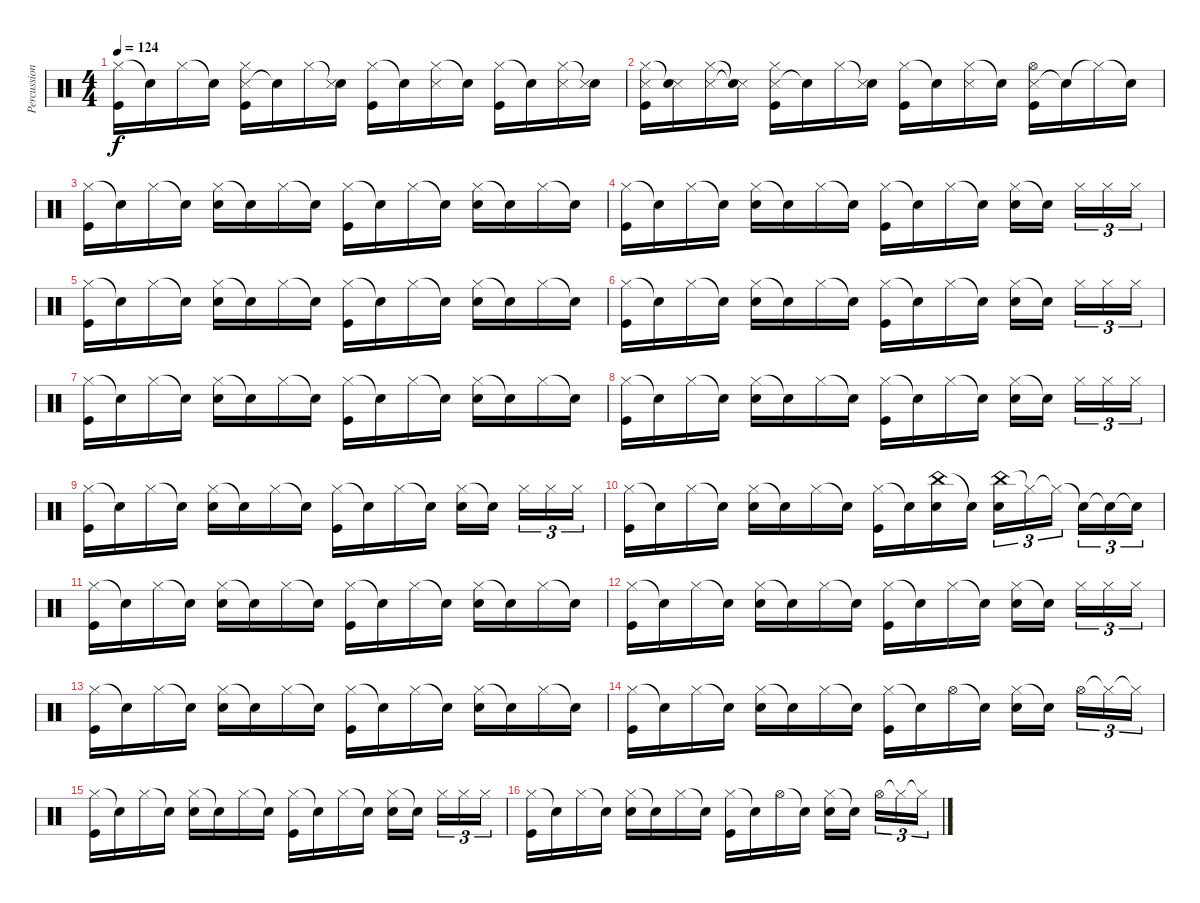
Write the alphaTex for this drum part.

\track ("Percussion" "Percussion") {instrument percussion}
\staff {score}
\articulation defaults
\ts (4 4)
\tempo 124
\clef neutral
\ks c
("Hi-Hat (closed)" "Kick (hit)").16{dy f} "Snare (hit)"{t}.16 "Hi-Hat (closed)".16 "Snare (hit)"{t}.16 ("Snare (side stick) 3" "Hi-Hat (closed)" "Kick (hit)").16 "Snare (hit)"{t}.16 "Hi-Hat (closed)".16 ("Snare (hit)"{t} "Snare (side stick) 3").16 ("Hi-Hat (closed)" "Kick (hit)").16 "Snare (hit)"{t}.16 ("Hi-Hat (closed)" "Snare (side stick) 3").16 "Snare (hit)"{t}.16 ("Hi-Hat (closed)" "Kick (hit)").16 "Snare (hit)"{t}.16 ("Hi-Hat (closed)" "Snare (side stick) 3").16 ("Snare (hit)"{t} "Snare (side stick) 3").16 |
("Snare (side stick) 3" "Hi-Hat (closed)" "Kick (hit)").16 ("Snare (side stick) 3" "Snare (hit)"{t}).16 ("Snare (side stick) 3" "Hi-Hat (closed)").16 ("Snare (side stick) 3"{t} "Snare (hit)"{t}).16 ("Snare (side stick) 3" "Hi-Hat (closed)" "Kick (hit)").16 "Snare (hit)"{t}.16 "Hi-Hat (closed)".16 ("Snare (hit)"{t} "Snare (side stick) 3").16 ("Hi-Hat (closed)" "Kick (hit)").16 "Snare (hit)"{t}.16 ("Hi-Hat (closed)" "Snare (side stick) 3").16 "Snare (hit)"{t}.16 ("Snare (side stick) 3" "Hi-Hat (open)" "Kick (hit)").16 "Snare (hit)"{t}.16 "Hi-Hat (closed)"{t}.16 "Snare (hit)"{t}.16 |
("Hi-Hat (closed)" "Kick (hit)").16 "Snare (hit)"{t}.16 "Hi-Hat (closed)".16 "Snare (hit)"{t}.16 ("Hi-Hat (closed)" "Electric Snare (hit)").16 "Snare (hit)"{t}.16 "Hi-Hat (closed)".16 "Snare (hit)"{t}.16 ("Hi-Hat (closed)" "Kick (hit)").16 "Snare (hit)"{t}.16 "Hi-Hat (closed)".16 "Snare (hit)"{t}.16 ("Hi-Hat (closed)" "Electric Snare (hit)").16 "Snare (hit)"{t}.16 "Hi-Hat (closed)".16 "Snare (hit)"{t}.16 |
("Hi-Hat (closed)" "Kick (hit)").16 "Snare (hit)"{t}.16 "Hi-Hat (closed)".16 "Snare (hit)"{t}.16 ("Hi-Hat (closed)" "Electric Snare (hit)").16 "Snare (hit)"{t}.16 "Hi-Hat (closed)".16 "Snare (hit)"{t}.16 ("Hi-Hat (closed)" "Kick (hit)").16 "Snare (hit)"{t}.16 "Hi-Hat (closed)".16 "Snare (hit)"{t}.16 ("Hi-Hat (closed)" "Electric Snare (hit)").16 "Snare (hit)"{t}.16 "Hi-Hat (closed)".16{tu (3 2)} "Hi-Hat (closed)".16{tu (3 2)} "Hi-Hat (closed)".16{tu (3 2)} |
("Hi-Hat (closed)" "Kick (hit)").16 "Snare (hit)"{t}.16 "Hi-Hat (closed)".16 "Snare (hit)"{t}.16 ("Hi-Hat (closed)" "Electric Snare (hit)").16 "Snare (hit)"{t}.16 "Hi-Hat (closed)".16 "Snare (hit)"{t}.16 ("Hi-Hat (closed)" "Kick (hit)").16 "Snare (hit)"{t}.16 "Hi-Hat (closed)".16 "Snare (hit)"{t}.16 ("Hi-Hat (closed)" "Electric Snare (hit)").16 "Snare (hit)"{t}.16 "Hi-Hat (closed)".16 "Snare (hit)"{t}.16 |
("Hi-Hat (closed)" "Kick (hit)").16 "Snare (hit)"{t}.16 "Hi-Hat (closed)".16 "Snare (hit)"{t}.16 ("Hi-Hat (closed)" "Electric Snare (hit)").16 "Snare (hit)"{t}.16 "Hi-Hat (closed)".16 "Snare (hit)"{t}.16 ("Hi-Hat (closed)" "Kick (hit)").16 "Snare (hit)"{t}.16 "Hi-Hat (closed)".16 "Snare (hit)"{t}.16 ("Hi-Hat (closed)" "Electric Snare (hit)").16 "Snare (hit)"{t}.16 "Hi-Hat (closed)".16{tu (3 2)} "Hi-Hat (closed)".16{tu (3 2)} "Hi-Hat (closed)".16{tu (3 2)} |
("Hi-Hat (closed)" "Kick (hit)").16 "Snare (hit)"{t}.16 "Hi-Hat (closed)".16 "Snare (hit)"{t}.16 ("Hi-Hat (closed)" "Electric Snare (hit)").16 "Snare (hit)"{t}.16 "Hi-Hat (closed)".16 "Snare (hit)"{t}.16 ("Hi-Hat (closed)" "Kick (hit)").16 "Snare (hit)"{t}.16 "Hi-Hat (closed)".16 "Snare (hit)"{t}.16 ("Hi-Hat (closed)" "Electric Snare (hit)").16 "Snare (hit)"{t}.16 "Hi-Hat (closed)".16 "Snare (hit)"{t}.16 |
("Hi-Hat (closed)" "Kick (hit)").16 "Snare (hit)"{t}.16 "Hi-Hat (closed)".16 "Snare (hit)"{t}.16 ("Hi-Hat (closed)" "Electric Snare (hit)").16 "Snare (hit)"{t}.16 "Hi-Hat (closed)".16 "Snare (hit)"{t}.16 ("Hi-Hat (closed)" "Kick (hit)").16 "Snare (hit)"{t}.16 "Hi-Hat (closed)".16 "Snare (hit)"{t}.16 ("Hi-Hat (closed)" "Electric Snare (hit)").16 "Snare (hit)"{t}.16 "Hi-Hat (closed)".16{tu (3 2)} "Hi-Hat (closed)".16{tu (3 2)} "Hi-Hat (closed)".16{tu (3 2)} |
("Hi-Hat (closed)" "Kick (hit)").16 "Snare (hit)"{t}.16 "Hi-Hat (closed)".16 "Snare (hit)"{t}.16 ("Hi-Hat (closed)" "Electric Snare (hit)").16 "Snare (hit)"{t}.16 "Hi-Hat (closed)".16 "Snare (hit)"{t}.16 ("Hi-Hat (closed)" "Kick (hit)").16 "Snare (hit)"{t}.16 "Hi-Hat (closed)".16 "Snare (hit)"{t}.16 ("Hi-Hat (closed)" "Electric Snare (hit)").16 "Snare (hit)"{t}.16 "Hi-Hat (closed)".16{tu (3 2)} "Hi-Hat (closed)".16{tu (3 2)} "Hi-Hat (closed)".16{tu (3 2)} |
("Hi-Hat (closed)" "Kick (hit)").16 "Snare (hit)"{t}.16 "Hi-Hat (closed)".16 "Snare (hit)"{t}.16 ("Hi-Hat (closed)" "Electric Snare (hit)").16 "Snare (hit)"{t}.16 "Hi-Hat (closed)".16 "Snare (hit)"{t}.16 ("Hi-Hat (closed)" "Kick (hit)").16 "Snare (hit)"{t}.16 ("China (hit)" "Electric Snare (hit)").16 "Snare (hit)"{t}.16 ("China (hit)" "Electric Snare (hit)").16{tu (3 2)} "Hi-Hat (closed)"{t}.16{tu (3 2)} "Hi-Hat (closed)"{t}.16{tu (3 2)} "Snare (hit)"{t}.16{tu (3 2)} "Snare (hit)"{t}.16{tu (3 2)} "Snare (hit)"{t}.16{tu (3 2)} |
("Hi-Hat (closed)" "Kick (hit)").16 "Snare (hit)"{t}.16 "Hi-Hat (closed)".16 "Snare (hit)"{t}.16 ("Hi-Hat (closed)" "Electric Snare (hit)").16 "Snare (hit)"{t}.16 "Hi-Hat (closed)".16 "Snare (hit)"{t}.16 ("Hi-Hat (closed)" "Kick (hit)").16 "Snare (hit)"{t}.16 "Hi-Hat (closed)".16 "Snare (hit)"{t}.16 ("Hi-Hat (closed)" "Electric Snare (hit)").16 "Snare (hit)"{t}.16 "Hi-Hat (closed)".16 "Snare (hit)"{t}.16 |
("Hi-Hat (closed)" "Kick (hit)").16 "Snare (hit)"{t}.16 "Hi-Hat (closed)".16 "Snare (hit)"{t}.16 ("Hi-Hat (closed)" "Electric Snare (hit)").16 "Snare (hit)"{t}.16 "Hi-Hat (closed)".16 "Snare (hit)"{t}.16 ("Hi-Hat (closed)" "Kick (hit)").16 "Snare (hit)"{t}.16 "Hi-Hat (closed)".16 "Snare (hit)"{t}.16 ("Hi-Hat (closed)" "Electric Snare (hit)").16 "Snare (hit)"{t}.16 "Hi-Hat (closed)".16{tu (3 2)} "Hi-Hat (closed)".16{tu (3 2)} "Hi-Hat (closed)".16{tu (3 2)} |
("Hi-Hat (closed)" "Kick (hit)").16 "Snare (hit)"{t}.16 "Hi-Hat (closed)".16 "Snare (hit)"{t}.16 ("Hi-Hat (closed)" "Electric Snare (hit)").16 "Snare (hit)"{t}.16 "Hi-Hat (closed)".16 "Snare (hit)"{t}.16 ("Hi-Hat (closed)" "Kick (hit)").16 "Snare (hit)"{t}.16 "Hi-Hat (closed)".16 "Snare (hit)"{t}.16 ("Hi-Hat (closed)" "Electric Snare (hit)").16 "Snare (hit)"{t}.16 "Hi-Hat (closed)".16 "Snare (hit)"{t}.16 |
("Hi-Hat (closed)" "Kick (hit)").16 "Snare (hit)"{t}.16 "Hi-Hat (closed)".16 "Snare (hit)"{t}.16 ("Hi-Hat (closed)" "Electric Snare (hit)").16 "Snare (hit)"{t}.16 "Hi-Hat (closed)".16 "Snare (hit)"{t}.16 ("Hi-Hat (closed)" "Kick (hit)").16 "Snare (hit)"{t}.16 "Hi-Hat (open)".16 "Snare (hit)"{t}.16 ("Hi-Hat (closed)" "Electric Snare (hit)").16 "Snare (hit)"{t}.16 "Hi-Hat (open)".16{tu (3 2)} "Hi-Hat (closed)"{t}.16{tu (3 2)} "Hi-Hat (closed)"{t}.16{tu (3 2)} |
("Hi-Hat (closed)" "Kick (hit)").16 "Snare (hit)"{t}.16 "Hi-Hat (closed)".16 "Snare (hit)"{t}.16 ("Hi-Hat (closed)" "Electric Snare (hit)").16 "Snare (hit)"{t}.16 "Hi-Hat (closed)".16 "Snare (hit)"{t}.16 ("Hi-Hat (closed)" "Kick (hit)").16 "Snare (hit)"{t}.16 "Hi-Hat (closed)".16 "Snare (hit)"{t}.16 ("Hi-Hat (closed)" "Electric Snare (hit)").16 "Snare (hit)"{t}.16 "Hi-Hat (closed)".16{tu (3 2)} "Hi-Hat (closed)".16{tu (3 2)} "Hi-Hat (closed)".16{tu (3 2)} |
("Hi-Hat (closed)" "Kick (hit)").16 "Snare (hit)"{t}.16 "Hi-Hat (closed)".16 "Snare (hit)"{t}.16 ("Hi-Hat (closed)" "Electric Snare (hit)").16 "Snare (hit)"{t}.16 "Hi-Hat (closed)".16 "Snare (hit)"{t}.16 ("Hi-Hat (closed)" "Kick (hit)").16 "Snare (hit)"{t}.16 "Hi-Hat (open)".16 "Snare (hit)"{t}.16 ("Hi-Hat (closed)" "Electric Snare (hit)").16 "Snare (hit)"{t}.16 "Hi-Hat (open)".16{tu (3 2)} "Hi-Hat (closed)"{t}.16{tu (3 2)} "Hi-Hat (closed)"{t}.16{tu (3 2)}
